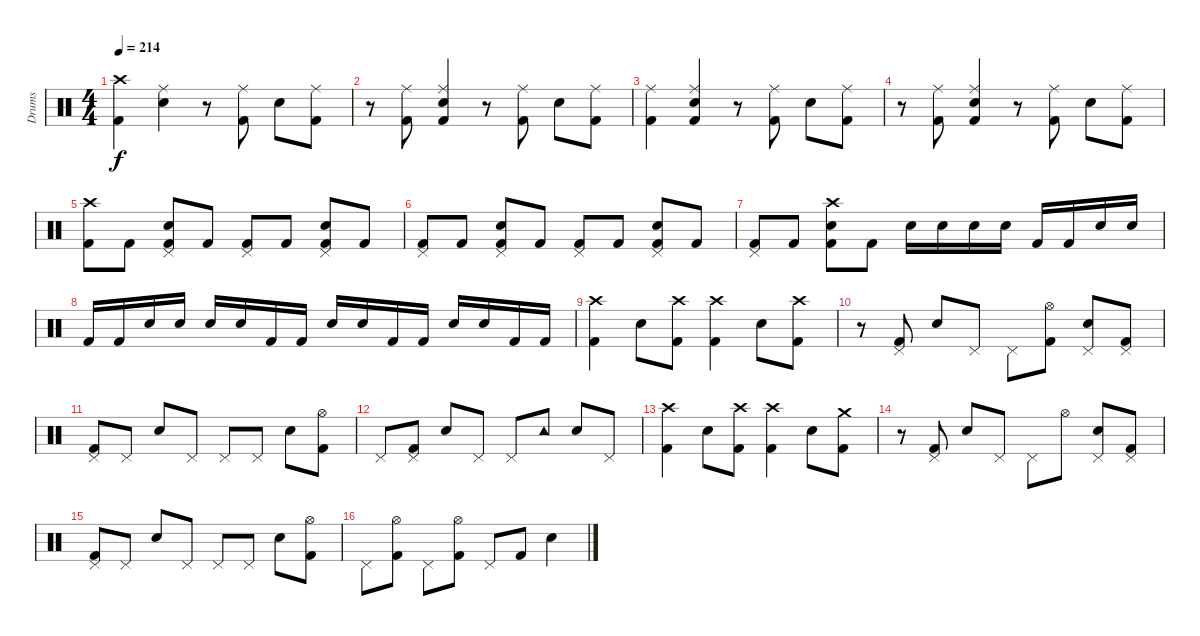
\track ("Drums" "Drums") {instrument percussion}
\staff {score}
\articulation defaults
\ts (4 4)
\tempo 214
\clef neutral
\ks c
("Crash high (hit)" "Kick (hit) 2").4{dy f} ("Ride (middle)" "Electric Snare (hit)").4 r.8 ("Ride (middle)" "Kick (hit) 2").8 "Electric Snare (hit)".8 ("Ride (middle)" "Kick (hit) 2").8 |
r.8 ("Ride (middle)" "Kick (hit) 2").8 ("Ride (middle)" "Electric Snare (hit)" "Kick (hit) 2").4 r.8 ("Ride (middle)" "Kick (hit) 2").8 "Electric Snare (hit)".8 ("Ride (middle)" "Kick (hit) 2").8 |
("Ride (middle)" "Kick (hit) 2").4 ("Ride (middle)" "Electric Snare (hit)" "Kick (hit) 2").4 r.8 ("Ride (middle)" "Kick (hit) 2").8 "Electric Snare (hit)".8 ("Ride (middle)" "Kick (hit) 2").8 |
r.8 ("Ride (middle)" "Kick (hit) 2").8 ("Ride (middle)" "Electric Snare (hit)" "Kick (hit) 2").4 r.8 ("Ride (middle)" "Kick (hit) 2").8 "Electric Snare (hit)".8 ("Ride (middle)" "Kick (hit) 2").8 |
("Crash high (hit)" "Kick (hit) 2").8 "Kick (hit) 2".8 ("Pedal Hi-Hat (hit)" "Electric Snare (hit)" "Kick (hit) 2").8 "Kick (hit) 2".8 ("Pedal Hi-Hat (hit)" "Kick (hit) 2").8 "Kick (hit) 2".8 ("Pedal Hi-Hat (hit)" "Electric Snare (hit)" "Kick (hit) 2").8 "Kick (hit) 2".8 |
("Pedal Hi-Hat (hit)" "Kick (hit) 2").8 "Kick (hit) 2".8 ("Pedal Hi-Hat (hit)" "Electric Snare (hit)" "Kick (hit) 2").8 "Kick (hit) 2".8 ("Pedal Hi-Hat (hit)" "Kick (hit) 2").8 "Kick (hit) 2".8 ("Pedal Hi-Hat (hit)" "Electric Snare (hit)" "Kick (hit) 2").8 "Kick (hit) 2".8 |
("Pedal Hi-Hat (hit)" "Kick (hit) 2").8 "Kick (hit) 2".8 ("Crash high (hit)" "Electric Snare (hit)" "Kick (hit) 2").8 "Kick (hit) 2".8 "Electric Snare (hit)".16 "Electric Snare (hit)".16 "Electric Snare (hit)".16 "Electric Snare (hit)".16 "Kick (hit) 2".16 "Kick (hit) 2".16 "Electric Snare (hit)".16 "Electric Snare (hit)".16 |
"Kick (hit) 2".16 "Kick (hit) 2".16 "Electric Snare (hit)".16 "Electric Snare (hit)".16 "Electric Snare (hit)".16 "Electric Snare (hit)".16 "Kick (hit) 2".16 "Kick (hit) 2".16 "Electric Snare (hit)".16 "Electric Snare (hit)".16 "Kick (hit) 2".16 "Kick (hit) 2".16 "Electric Snare (hit)".16 "Electric Snare (hit)".16 "Kick (hit) 2".16 "Kick (hit) 2".16 |
("Crash high (hit)" "Kick (hit) 2").4 "Electric Snare (hit)".8 ("Crash high (hit)" "Kick (hit) 2").8 ("Crash high (hit)" "Kick (hit) 2").4 "Electric Snare (hit)".8 ("Crash high (hit)" "Kick (hit) 2").8 |
r.8 ("Pedal Hi-Hat (hit)" "Kick (hit) 2").8 "Electric Snare (hit)".8 "Pedal Hi-Hat (hit)".8 "Pedal Hi-Hat (hit)".8 ("Hi-Hat (open)" "Kick (hit) 2").8 ("Pedal Hi-Hat (hit)" "Electric Snare (hit)").8 ("Pedal Hi-Hat (hit)" "Kick (hit) 2").8 |
("Pedal Hi-Hat (hit)" "Kick (hit) 2").8 "Pedal Hi-Hat (hit)".8 "Electric Snare (hit)".8 "Pedal Hi-Hat (hit)".8 "Pedal Hi-Hat (hit)".8 "Pedal Hi-Hat (hit)".8 "Electric Snare (hit)".8 ("Hi-Hat (open)" "Kick (hit) 2").8 |
"Pedal Hi-Hat (hit)".8 ("Pedal Hi-Hat (hit)" "Kick (hit) 2").8 "Electric Snare (hit)".8 "Pedal Hi-Hat (hit)".8 "Pedal Hi-Hat (hit)".8 "Tambourine (hit)".8 "Electric Snare (hit)".8 "Pedal Hi-Hat (hit)".8 |
("Crash high (hit)" "Kick (hit) 2").4 "Electric Snare (hit)".8 ("Crash high (hit)" "Kick (hit) 2").8 ("Crash high (hit)" "Kick (hit) 2").4 "Electric Snare (hit)".8 ("Crash medium (hit)" "Kick (hit) 2").8 |
r.8 ("Pedal Hi-Hat (hit)" "Kick (hit) 2").8 "Electric Snare (hit)".8 "Pedal Hi-Hat (hit)".8 "Pedal Hi-Hat (hit)".8 "Hi-Hat (open)".8 ("Pedal Hi-Hat (hit)" "Electric Snare (hit)").8 ("Pedal Hi-Hat (hit)" "Kick (hit) 2").8 |
("Pedal Hi-Hat (hit)" "Kick (hit) 2").8 "Pedal Hi-Hat (hit)".8 "Electric Snare (hit)".8 "Pedal Hi-Hat (hit)".8 "Pedal Hi-Hat (hit)".8 "Pedal Hi-Hat (hit)".8 "Electric Snare (hit)".8 ("Hi-Hat (open)" "Kick (hit) 2").8 |
"Pedal Hi-Hat (hit)".8 ("Hi-Hat (open)" "Kick (hit) 2").8 "Pedal Hi-Hat (hit)".8 ("Hi-Hat (open)" "Kick (hit) 2").8 "Pedal Hi-Hat (hit)".8 "Kick (hit) 2".8 "Electric Snare (hit)".4
